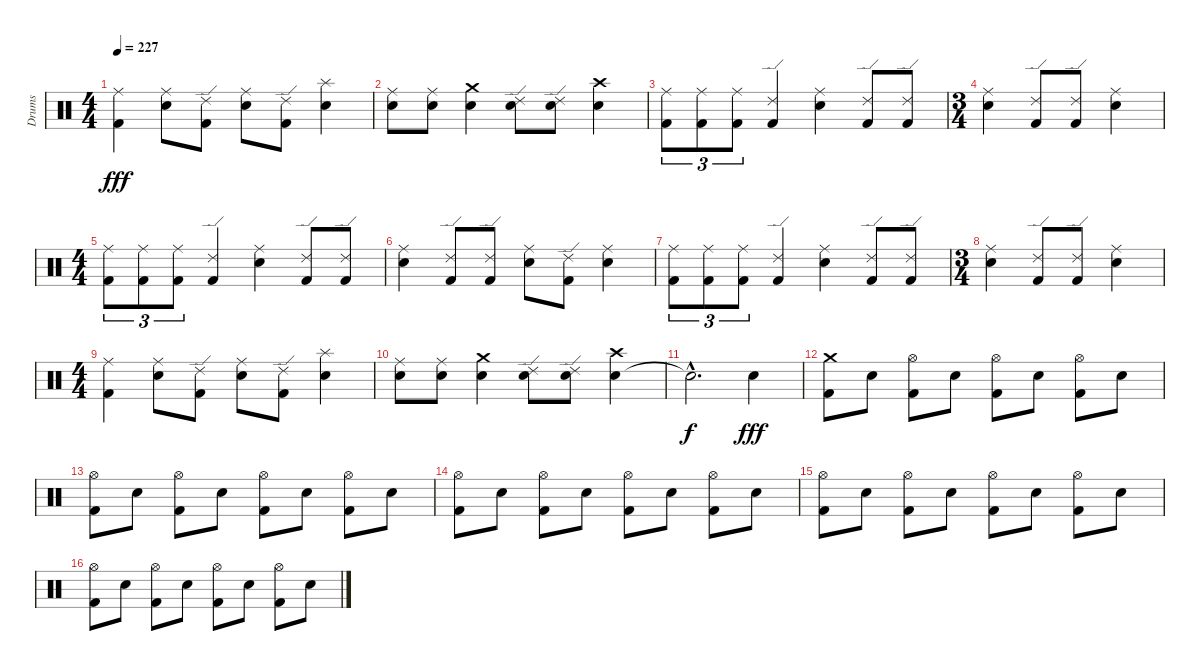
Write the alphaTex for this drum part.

\track ("Drums" "Drums") {instrument percussion}
\staff {score}
\articulation defaults
\ts (4 4)
\tempo 227
\clef neutral
\ks c
("Kick (hit) 2" "Ride (middle)").4{dy fff} ("Electric Snare (hit)" "Ride (middle)").8 ("Kick (hit) 2" "Ride (edge) 2").8 ("Electric Snare (hit)" "Ride (middle)").8 ("Kick (hit) 2" "Ride (edge) 2").8 ("Electric Snare (hit)" "Splash (hit)").4 |
("Electric Snare (hit)" "Ride (middle)").8 ("Electric Snare (hit)" "Ride (middle)").8 ("Electric Snare (hit)" "Crash medium (hit)").4 ("Electric Snare (hit)" "Ride (edge) 2").8 ("Electric Snare (hit)" "Ride (edge) 2").8 ("Electric Snare (hit)" "Crash high (hit)").4 |
("Kick (hit) 2" "Ride (middle)").8{tu (3 2)} ("Kick (hit) 2" "Ride (middle)").8{tu (3 2)} ("Kick (hit) 2" "Ride (middle)").8{tu (3 2)} ("Kick (hit) 2" "Ride (edge) 2").4 ("Electric Snare (hit)" "Ride (middle)").4 ("Kick (hit) 2" "Ride (edge) 2").8 ("Kick (hit) 2" "Ride (edge) 2").8 |
\ts (3 4)
("Electric Snare (hit)" "Ride (middle)").4 ("Kick (hit) 2" "Ride (edge) 2").8 ("Kick (hit) 2" "Ride (edge) 2").8 ("Electric Snare (hit)" "Ride (middle)").4 |
\ts (4 4)
("Kick (hit) 2" "Ride (middle)").8{tu (3 2)} ("Kick (hit) 2" "Ride (middle)").8{tu (3 2)} ("Kick (hit) 2" "Ride (middle)").8{tu (3 2)} ("Kick (hit) 2" "Ride (edge) 2").4 ("Electric Snare (hit)" "Ride (middle)").4 ("Kick (hit) 2" "Ride (edge) 2").8 ("Kick (hit) 2" "Ride (edge) 2").8 |
("Electric Snare (hit)" "Ride (middle)").4 ("Kick (hit) 2" "Ride (edge) 2").8 ("Kick (hit) 2" "Ride (edge) 2").8 ("Electric Snare (hit)" "Ride (middle)").8 ("Kick (hit) 2" "Ride (edge) 2").8 ("Electric Snare (hit)" "Ride (middle)").4 |
("Kick (hit) 2" "Ride (middle)").8{tu (3 2)} ("Kick (hit) 2" "Ride (middle)").8{tu (3 2)} ("Kick (hit) 2" "Ride (middle)").8{tu (3 2)} ("Kick (hit) 2" "Ride (edge) 2").4 ("Electric Snare (hit)" "Ride (middle)").4 ("Kick (hit) 2" "Ride (edge) 2").8 ("Kick (hit) 2" "Ride (edge) 2").8 |
\ts (3 4)
("Electric Snare (hit)" "Ride (middle)").4 ("Kick (hit) 2" "Ride (edge) 2").8 ("Kick (hit) 2" "Ride (edge) 2").8 ("Electric Snare (hit)" "Ride (middle)").4 |
\ts (4 4)
("Kick (hit) 2" "Ride (middle)").4 ("Electric Snare (hit)" "Ride (middle)").8 ("Kick (hit) 2" "Ride (edge) 2").8 ("Electric Snare (hit)" "Ride (middle)").8 ("Kick (hit) 2" "Ride (edge) 2").8 ("Electric Snare (hit)" "Splash (hit)").4 |
("Electric Snare (hit)" "Ride (middle)").8 ("Electric Snare (hit)" "Ride (middle)").8 ("Electric Snare (hit)" "Crash medium (hit)").4 ("Electric Snare (hit)" "Ride (edge) 2").8 ("Electric Snare (hit)" "Ride (edge) 2").8 ("Electric Snare (hit)" "Crash high (hit)").4 |
"Snare (hit)"{hac t}.2{d dy f} "Electric Snare (hit)".4{dy fff} |
("Kick (hit) 2" "Crash medium (hit)").8 "Electric Snare (hit)".8 ("Kick (hit) 2" "Hi-Hat (open)").8 "Electric Snare (hit)".8 ("Kick (hit) 2" "Hi-Hat (open)").8 "Electric Snare (hit)".8 ("Kick (hit) 2" "Hi-Hat (open)").8 "Electric Snare (hit)".8 |
("Kick (hit) 2" "Hi-Hat (open)").8 "Electric Snare (hit)".8 ("Kick (hit) 2" "Hi-Hat (open)").8 "Electric Snare (hit)".8 ("Kick (hit) 2" "Hi-Hat (open)").8 "Electric Snare (hit)".8 ("Kick (hit) 2" "Hi-Hat (open)").8 "Electric Snare (hit)".8 |
("Kick (hit) 2" "Hi-Hat (open)").8 "Electric Snare (hit)".8 ("Kick (hit) 2" "Hi-Hat (open)").8 "Electric Snare (hit)".8 ("Kick (hit) 2" "Hi-Hat (open)").8 "Electric Snare (hit)".8 ("Kick (hit) 2" "Hi-Hat (open)").8 "Electric Snare (hit)".8 |
("Kick (hit) 2" "Hi-Hat (open)").8 "Electric Snare (hit)".8 ("Kick (hit) 2" "Hi-Hat (open)").8 "Electric Snare (hit)".8 ("Kick (hit) 2" "Hi-Hat (open)").8 "Electric Snare (hit)".8 ("Kick (hit) 2" "Hi-Hat (open)").8 "Electric Snare (hit)".8 |
("Kick (hit) 2" "Hi-Hat (open)").8 "Electric Snare (hit)".8 ("Kick (hit) 2" "Hi-Hat (open)").8 "Electric Snare (hit)".8 ("Kick (hit) 2" "Hi-Hat (open)").8 "Electric Snare (hit)".8 ("Kick (hit) 2" "Hi-Hat (open)").8 "Electric Snare (hit)".8
